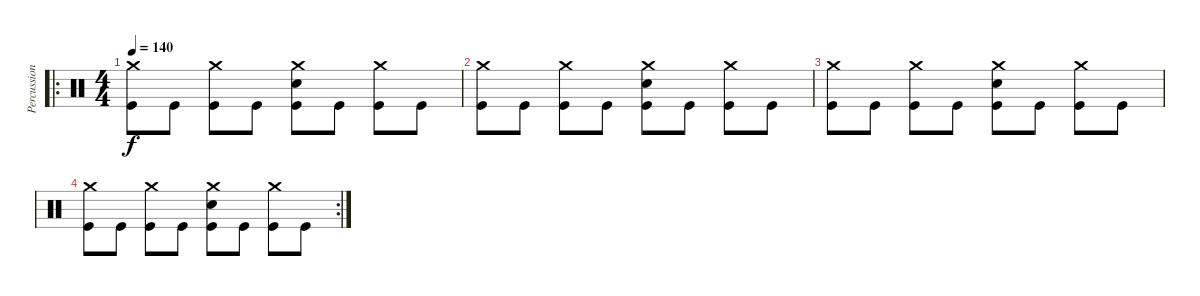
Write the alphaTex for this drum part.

\track ("Percussion" "Percussion") {instrument percussion}
\staff {score}
\articulation defaults
\ro
\ts (4 4)
\tempo 140
\clef neutral
\ks c
("Crash medium (hit)" "Kick (hit)").8{dy f} "Kick (hit)".8 ("Crash medium (hit)" "Kick (hit)").8 "Kick (hit)".8 ("Crash medium (hit)" "Snare (hit) 2" "Kick (hit)").8 "Kick (hit)".8 ("Crash medium (hit)" "Kick (hit)").8 "Kick (hit)".8 |
("Crash medium (hit)" "Kick (hit)").8 "Kick (hit)".8 ("Crash medium (hit)" "Kick (hit)").8 "Kick (hit)".8 ("Crash medium (hit)" "Snare (hit) 2" "Kick (hit)").8 "Kick (hit)".8 ("Crash medium (hit)" "Kick (hit)").8 "Kick (hit)".8 |
("Crash medium (hit)" "Kick (hit)").8 "Kick (hit)".8 ("Crash medium (hit)" "Kick (hit)").8 "Kick (hit)".8 ("Crash medium (hit)" "Snare (hit) 2" "Kick (hit)").8 "Kick (hit)".8 ("Crash medium (hit)" "Kick (hit)").8 "Kick (hit)".8 |
\rc 2
("Crash medium (hit)" "Kick (hit)").8 "Kick (hit)".8 ("Crash medium (hit)" "Kick (hit)").8 "Kick (hit)".8 ("Crash medium (hit)" "Snare (hit) 2" "Kick (hit)").8 "Kick (hit)".8 ("Crash medium (hit)" "Kick (hit)").8 "Kick (hit)".8
